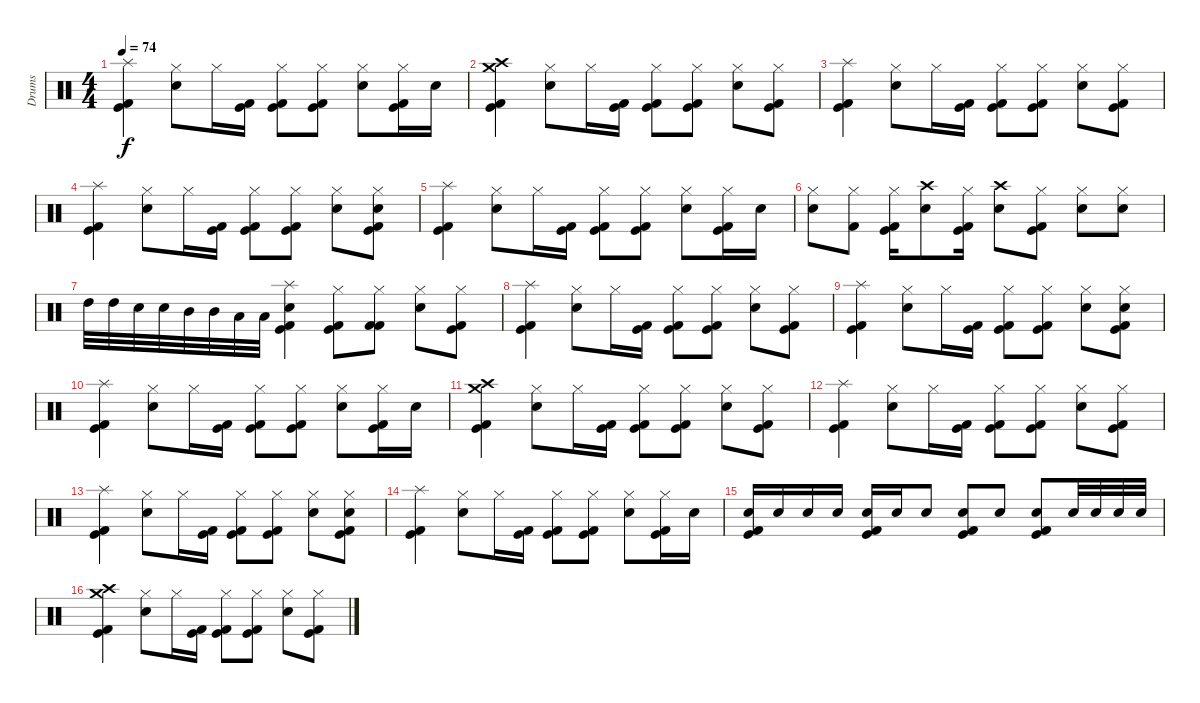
\track ("Drums" "Drums") {instrument percussion}
\staff {score}
\articulation defaults
\ts (4 4)
\tempo 74
\clef neutral
\ks c
("Splash (hit)" "Kick (hit) 2" "Kick (hit)").4{dy f} ("Hi-Hat (closed)" "Electric Snare (hit)").8 "Hi-Hat (closed)".16 ("Kick (hit) 2" "Kick (hit)").16 ("Hi-Hat (closed)" "Kick (hit) 2" "Kick (hit)").8 ("Hi-Hat (closed)" "Kick (hit)" "Kick (hit) 2").8 ("Hi-Hat (closed)" "Electric Snare (hit)").8 ("Hi-Hat (closed)" "Kick (hit) 2" "Kick (hit)").16 "Electric Snare (hit)".16 |
("Crash medium (hit)" "Crash high (hit)" "Kick (hit) 2" "Kick (hit)").4 ("Hi-Hat (closed)" "Electric Snare (hit)").8 "Hi-Hat (closed)".16 ("Kick (hit) 2" "Kick (hit)").16 ("Hi-Hat (closed)" "Kick (hit) 2" "Kick (hit)").8 ("Hi-Hat (closed)" "Kick (hit)" "Kick (hit) 2").8 ("Hi-Hat (closed)" "Electric Snare (hit)").8 ("Hi-Hat (closed)" "Kick (hit) 2" "Kick (hit)").8 |
("Splash (hit)" "Kick (hit) 2" "Kick (hit)").4 ("Hi-Hat (closed)" "Electric Snare (hit)").8 "Hi-Hat (closed)".16 ("Kick (hit) 2" "Kick (hit)").16 ("Hi-Hat (closed)" "Kick (hit) 2" "Kick (hit)").8 ("Hi-Hat (closed)" "Kick (hit)" "Kick (hit) 2").8 ("Hi-Hat (closed)" "Electric Snare (hit)").8 ("Hi-Hat (closed)" "Kick (hit) 2" "Kick (hit)").8 |
("Splash (hit)" "Kick (hit) 2" "Kick (hit)").4 ("Hi-Hat (closed)" "Electric Snare (hit)").8 "Hi-Hat (closed)".16 ("Kick (hit) 2" "Kick (hit)").16 ("Hi-Hat (closed)" "Kick (hit) 2" "Kick (hit)").8 ("Hi-Hat (closed)" "Kick (hit)" "Kick (hit) 2").8 ("Hi-Hat (closed)" "Electric Snare (hit)").8 ("Hi-Hat (closed)" "Electric Snare (hit)" "Kick (hit) 2" "Kick (hit)").8 |
("Splash (hit)" "Kick (hit) 2" "Kick (hit)").4 ("Hi-Hat (closed)" "Electric Snare (hit)").8 "Hi-Hat (closed)".16 ("Kick (hit) 2" "Kick (hit)").16 ("Hi-Hat (closed)" "Kick (hit) 2" "Kick (hit)").8 ("Hi-Hat (closed)" "Kick (hit)" "Kick (hit) 2").8 ("Hi-Hat (closed)" "Electric Snare (hit)").8 ("Hi-Hat (closed)" "Kick (hit) 2" "Kick (hit)").16 "Electric Snare (hit)".16 |
("Hi-Hat (closed)" "Snare (hit) 2").8 ("Hi-Hat (closed)" "Kick (hit) 2").8 ("Hi-Hat (closed)" "Kick (hit) 2" "Kick (hit)").16 ("Crash high (hit)" "Snare (hit) 2").8 ("Hi-Hat (closed)" "Kick (hit) 2" "Kick (hit)").16 ("Crash high (hit)" "Snare (hit) 2").8 ("Hi-Hat (closed)" "Kick (hit) 2" "Kick (hit)").8 ("Hi-Hat (closed)" "Snare (hit) 2").8 ("Hi-Hat (closed)" "Snare (hit) 2").8 |
"High Tom (hit)".32 "High Tom (hit)".32 "Electric Snare (hit)".32 "Electric Snare (hit)".32 "Mid Tom (hit)".32 "Mid Tom (hit)".32 "Low Floor Tom (hit)".32 "Low Floor Tom (hit)".32 ("Splash (hit)" "Electric Snare (hit)" "Kick (hit) 2" "Kick (hit)").4 ("Hi-Hat (closed)" "Kick (hit) 2" "Kick (hit)").8 ("Hi-Hat (closed)" "Kick (hit) 2" "Kick (hit) 2").8 ("Hi-Hat (closed)" "Electric Snare (hit)").8 ("Hi-Hat (closed)" "Kick (hit) 2" "Kick (hit)").8 |
("Splash (hit)" "Kick (hit) 2" "Kick (hit)").4 ("Hi-Hat (closed)" "Electric Snare (hit)").8 "Hi-Hat (closed)".16 ("Kick (hit) 2" "Kick (hit)").16 ("Hi-Hat (closed)" "Kick (hit) 2" "Kick (hit)").8 ("Hi-Hat (closed)" "Kick (hit)" "Kick (hit) 2").8 ("Hi-Hat (closed)" "Electric Snare (hit)").8 ("Hi-Hat (closed)" "Kick (hit) 2" "Kick (hit)").8 |
("Splash (hit)" "Kick (hit) 2" "Kick (hit)").4 ("Hi-Hat (closed)" "Electric Snare (hit)").8 "Hi-Hat (closed)".16 ("Kick (hit) 2" "Kick (hit)").16 ("Hi-Hat (closed)" "Kick (hit) 2" "Kick (hit)").8 ("Hi-Hat (closed)" "Kick (hit)" "Kick (hit) 2").8 ("Hi-Hat (closed)" "Electric Snare (hit)").8 ("Hi-Hat (closed)" "Electric Snare (hit)" "Kick (hit) 2" "Kick (hit)").8 |
("Splash (hit)" "Kick (hit) 2" "Kick (hit)").4 ("Hi-Hat (closed)" "Electric Snare (hit)").8 "Hi-Hat (closed)".16 ("Kick (hit) 2" "Kick (hit)").16 ("Hi-Hat (closed)" "Kick (hit) 2" "Kick (hit)").8 ("Hi-Hat (closed)" "Kick (hit)" "Kick (hit) 2").8 ("Hi-Hat (closed)" "Electric Snare (hit)").8 ("Hi-Hat (closed)" "Kick (hit) 2" "Kick (hit)").16 "Electric Snare (hit)".16 |
("Crash medium (hit)" "Crash high (hit)" "Kick (hit) 2" "Kick (hit)").4 ("Hi-Hat (closed)" "Electric Snare (hit)").8 "Hi-Hat (closed)".16 ("Kick (hit) 2" "Kick (hit)").16 ("Hi-Hat (closed)" "Kick (hit) 2" "Kick (hit)").8 ("Hi-Hat (closed)" "Kick (hit)" "Kick (hit) 2").8 ("Hi-Hat (closed)" "Electric Snare (hit)").8 ("Hi-Hat (closed)" "Kick (hit) 2" "Kick (hit)").8 |
("Splash (hit)" "Kick (hit) 2" "Kick (hit)").4 ("Hi-Hat (closed)" "Electric Snare (hit)").8 "Hi-Hat (closed)".16 ("Kick (hit) 2" "Kick (hit)").16 ("Hi-Hat (closed)" "Kick (hit) 2" "Kick (hit)").8 ("Hi-Hat (closed)" "Kick (hit)" "Kick (hit) 2").8 ("Hi-Hat (closed)" "Electric Snare (hit)").8 ("Hi-Hat (closed)" "Kick (hit) 2" "Kick (hit)").8 |
("Splash (hit)" "Kick (hit) 2" "Kick (hit)").4 ("Hi-Hat (closed)" "Electric Snare (hit)").8 "Hi-Hat (closed)".16 ("Kick (hit) 2" "Kick (hit)").16 ("Hi-Hat (closed)" "Kick (hit) 2" "Kick (hit)").8 ("Hi-Hat (closed)" "Kick (hit)" "Kick (hit) 2").8 ("Hi-Hat (closed)" "Electric Snare (hit)").8 ("Hi-Hat (closed)" "Electric Snare (hit)" "Kick (hit) 2" "Kick (hit)").8 |
("Splash (hit)" "Kick (hit) 2" "Kick (hit)").4 ("Hi-Hat (closed)" "Electric Snare (hit)").8 "Hi-Hat (closed)".16 ("Kick (hit) 2" "Kick (hit)").16 ("Hi-Hat (closed)" "Kick (hit) 2" "Kick (hit)").8 ("Hi-Hat (closed)" "Kick (hit)" "Kick (hit) 2").8 ("Hi-Hat (closed)" "Electric Snare (hit)").8 ("Hi-Hat (closed)" "Kick (hit) 2" "Kick (hit)").16 "Electric Snare (hit)".16 |
("Electric Snare (hit)" "Kick (hit) 2" "Kick (hit)").16 "Electric Snare (hit)".16 "Electric Snare (hit)".16 "Electric Snare (hit)".16 ("Electric Snare (hit)" "Kick (hit) 2" "Kick (hit)").16 "Electric Snare (hit)".16 "Electric Snare (hit)".8 ("Electric Snare (hit)" "Kick (hit) 2" "Kick (hit)").8 "Electric Snare (hit)".8 ("Electric Snare (hit)" "Kick (hit) 2" "Kick (hit)").8 "Electric Snare (hit)".32 "Electric Snare (hit)".32 "Electric Snare (hit)".32 "Electric Snare (hit)".32 |
("Crash medium (hit)" "Crash high (hit)" "Kick (hit) 2" "Kick (hit)").4 ("Hi-Hat (closed)" "Electric Snare (hit)").8 "Hi-Hat (closed)".16 ("Kick (hit) 2" "Kick (hit)").16 ("Hi-Hat (closed)" "Kick (hit) 2" "Kick (hit)").8 ("Hi-Hat (closed)" "Kick (hit)" "Kick (hit) 2").8 ("Hi-Hat (closed)" "Electric Snare (hit)").8 ("Hi-Hat (closed)" "Kick (hit) 2" "Kick (hit)").8
